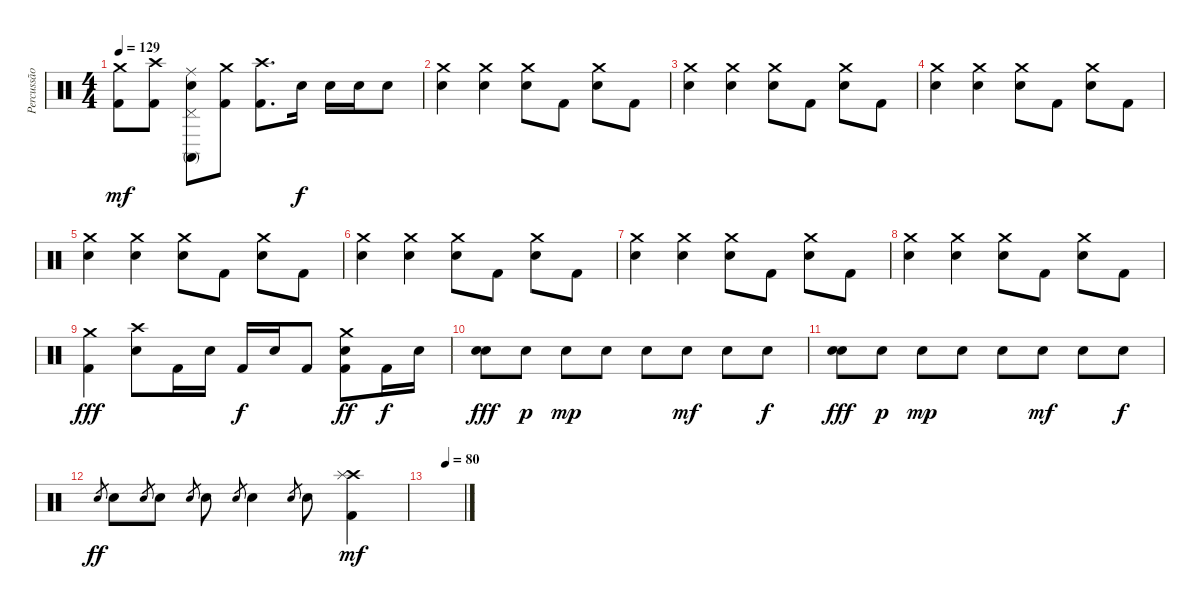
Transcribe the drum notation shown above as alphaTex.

\track ("Percussão" "Percussão") {instrument percussion}
\staff {score}
\articulation defaults
\ts (4 4)
\tempo 129
\clef neutral
\ks c
("Crash medium (hit)" "Kick (hit) 2").8{dy mf} ("Crash high (hit)" "Kick (hit) 2").8 ("Ride (middle)" "Snare (hit) 2" "Conga high (mute)" "Pedal Hi-Hat (hit)").8 ("Crash medium (hit)" "Kick (hit) 2").8 ("Crash high (hit)" "Kick (hit) 2").8{d} "Snare (hit) 2".16{dy f} "Snare (hit) 2".16 "Snare (hit) 2".16 "Snare (hit) 2".8 |
("Crash medium (hit)" "Snare (hit) 2").4 ("Crash medium (hit)" "Snare (hit) 2").4 ("Crash medium (hit)" "Snare (hit) 2").8 "Kick (hit) 2".8 ("Crash medium (hit)" "Snare (hit) 2").8 "Kick (hit) 2".8 |
("Crash medium (hit)" "Snare (hit) 2").4 ("Crash medium (hit)" "Snare (hit) 2").4 ("Crash medium (hit)" "Snare (hit) 2").8 "Kick (hit) 2".8 ("Crash medium (hit)" "Snare (hit) 2").8 "Kick (hit) 2".8 |
("Crash medium (hit)" "Snare (hit) 2").4 ("Crash medium (hit)" "Snare (hit) 2").4 ("Crash medium (hit)" "Snare (hit) 2").8 "Kick (hit) 2".8 ("Crash medium (hit)" "Snare (hit) 2").8 "Kick (hit) 2".8 |
("Crash medium (hit)" "Snare (hit) 2").4 ("Crash medium (hit)" "Snare (hit) 2").4 ("Crash medium (hit)" "Snare (hit) 2").8 "Kick (hit) 2".8 ("Crash medium (hit)" "Snare (hit) 2").8 "Kick (hit) 2".8 |
("Crash medium (hit)" "Snare (hit) 2").4 ("Crash medium (hit)" "Snare (hit) 2").4 ("Crash medium (hit)" "Snare (hit) 2").8 "Kick (hit) 2".8 ("Crash medium (hit)" "Snare (hit) 2").8 "Kick (hit) 2".8 |
("Crash medium (hit)" "Snare (hit) 2").4 ("Crash medium (hit)" "Snare (hit) 2").4 ("Crash medium (hit)" "Snare (hit) 2").8 "Kick (hit) 2".8 ("Crash medium (hit)" "Snare (hit) 2").8 "Kick (hit) 2".8 |
("Crash medium (hit)" "Snare (hit) 2").4 ("Crash medium (hit)" "Snare (hit) 2").4 ("Crash medium (hit)" "Snare (hit) 2").8 "Kick (hit) 2".8 ("Crash medium (hit)" "Snare (hit) 2").8 "Kick (hit) 2".8 |
("Crash medium (hit)" "Kick (hit) 2").4{dy fff} ("Crash high (hit)" "Snare (hit) 2").8 "Kick (hit) 2".16 "Snare (hit) 2".16 "Kick (hit) 2".16{dy f} "Snare (hit) 2".16 "Kick (hit) 2".8 ("Crash medium (hit)" "Snare (hit) 2" "Kick (hit) 2").8{dy ff} "Kick (hit) 2".16{dy f} "Snare (hit) 2".16 |
("Snare (hit) 2" "Snare (hit) 2").8{dy fff} "Snare (hit) 2".8{dy p} "Snare (hit) 2".8{dy mp} "Snare (hit) 2".8 "Snare (hit) 2".8 "Snare (hit) 2".8{dy mf} "Snare (hit) 2".8 "Snare (hit) 2".8{dy f} |
("Snare (hit) 2" "Snare (hit) 2").8{dy fff} "Snare (hit) 2".8{dy p} "Snare (hit) 2".8{dy mp} "Snare (hit) 2".8 "Snare (hit) 2".8 "Snare (hit) 2".8{dy mf} "Snare (hit) 2".8 "Snare (hit) 2".8{dy f} |
"Snare (hit) 2".8{gr dy ff} "Snare (hit) 2".8 "Snare (hit) 2".8{gr} "Snare (hit) 2".8 "Snare (hit) 2".8{gr} "Snare (hit) 2".8 "Snare (hit) 2".8{gr} "Snare (hit) 2".4 "Snare (hit) 2".8{gr} "Snare (hit) 2".8 ("Crash high (hit)" "Splash (hit)" "Kick (hit) 2").4{dy mf} |
\tempo (80 0.5)
